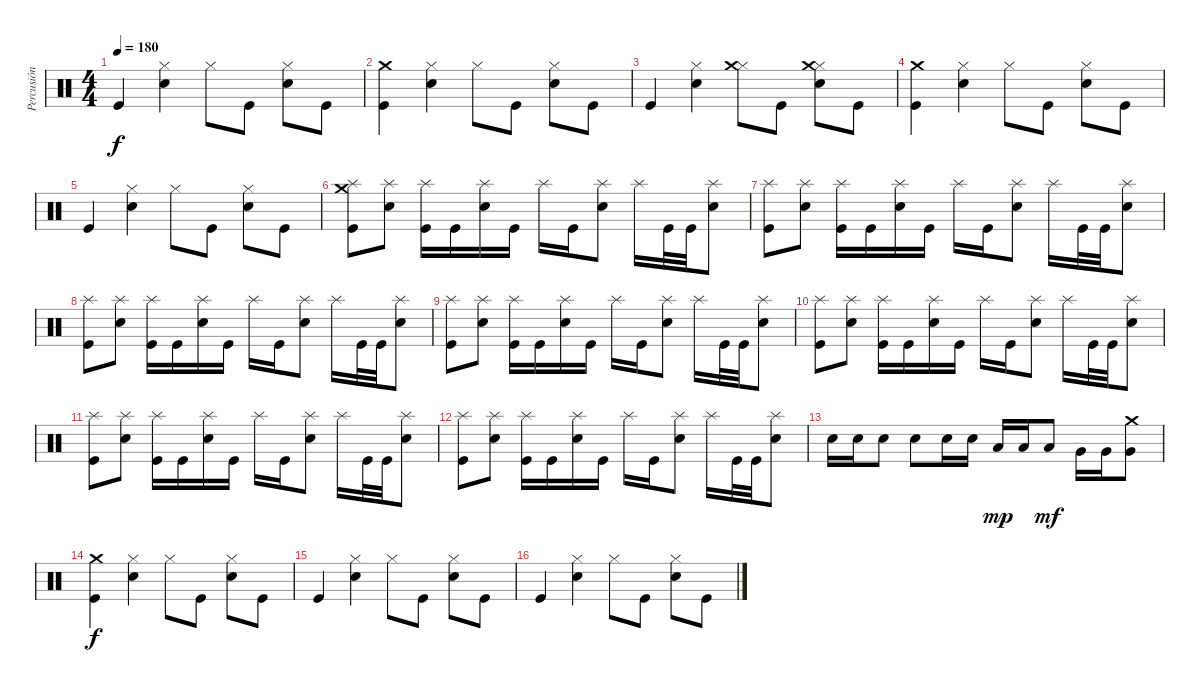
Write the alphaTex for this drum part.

\track ("Percusión" "Percusión") {instrument percussion}
\staff {score}
\articulation defaults
\ts (4 4)
\tempo 180
\clef neutral
\ks c "Kick (hit)".4{dy f}
("Snare (hit) 2" "Hi-Hat (closed)").4 "Hi-Hat (closed)".8 "Kick (hit)".8 ("Snare (hit) 2" "Hi-Hat (closed)").8 "Kick (hit)".8 |
("Kick (hit)" "Crash medium (hit)").4 ("Snare (hit) 2" "Hi-Hat (closed)").4 "Hi-Hat (closed)".8 "Kick (hit)".8 ("Snare (hit) 2" "Hi-Hat (closed)").8 "Kick (hit)".8 |
"Kick (hit)".4 ("Snare (hit) 2" "Hi-Hat (closed)").4 ("Hi-Hat (closed)" "Crash medium (hit)").8 "Kick (hit)".8 ("Snare (hit) 2" "Hi-Hat (closed)" "Crash medium (hit)").8 "Kick (hit)".8 |
("Kick (hit)" "Crash medium (hit)").4 ("Snare (hit) 2" "Hi-Hat (closed)").4 "Hi-Hat (closed)".8 "Kick (hit)".8 ("Snare (hit) 2" "Hi-Hat (closed)").8 "Kick (hit)".8 |
"Kick (hit)".4 ("Snare (hit) 2" "Hi-Hat (closed)").4 "Hi-Hat (closed)".8 "Kick (hit)".8 ("Snare (hit) 2" "Hi-Hat (closed)").8 "Kick (hit)".8 |
("Splash (hit)" "Kick (hit)" "Crash medium (hit)").8 ("Splash (hit)" "Electric Snare (hit)").8 ("Splash (hit)" "Kick (hit)").16 "Kick (hit)".16 ("Splash (hit)" "Electric Snare (hit)").16 "Kick (hit)".16 "Splash (hit)".16 "Kick (hit)".16 ("Splash (hit)" "Electric Snare (hit)").8 "Splash (hit)".16 "Kick (hit)".32 "Kick (hit)".32 ("Splash (hit)" "Electric Snare (hit)").8 |
("Splash (hit)" "Kick (hit)").8 ("Splash (hit)" "Electric Snare (hit)").8 ("Splash (hit)" "Kick (hit)").16 "Kick (hit)".16 ("Splash (hit)" "Electric Snare (hit)").16 "Kick (hit)".16 "Splash (hit)".16 "Kick (hit)".16 ("Splash (hit)" "Electric Snare (hit)").8 "Splash (hit)".16 "Kick (hit)".32 "Kick (hit)".32 ("Splash (hit)" "Electric Snare (hit)").8 |
("Splash (hit)" "Kick (hit)").8 ("Splash (hit)" "Electric Snare (hit)").8 ("Splash (hit)" "Kick (hit)").16 "Kick (hit)".16 ("Splash (hit)" "Electric Snare (hit)").16 "Kick (hit)".16 "Splash (hit)".16 "Kick (hit)".16 ("Splash (hit)" "Electric Snare (hit)").8 "Splash (hit)".16 "Kick (hit)".32 "Kick (hit)".32 ("Splash (hit)" "Electric Snare (hit)").8 |
("Splash (hit)" "Kick (hit)").8 ("Splash (hit)" "Electric Snare (hit)").8 ("Splash (hit)" "Kick (hit)").16 "Kick (hit)".16 ("Splash (hit)" "Electric Snare (hit)").16 "Kick (hit)".16 "Splash (hit)".16 "Kick (hit)".16 ("Splash (hit)" "Electric Snare (hit)").8 "Splash (hit)".16 "Kick (hit)".32 "Kick (hit)".32 ("Splash (hit)" "Electric Snare (hit)").8 |
("Splash (hit)" "Kick (hit)").8 ("Splash (hit)" "Electric Snare (hit)").8 ("Splash (hit)" "Kick (hit)").16 "Kick (hit)".16 ("Splash (hit)" "Electric Snare (hit)").16 "Kick (hit)".16 "Splash (hit)".16 "Kick (hit)".16 ("Splash (hit)" "Electric Snare (hit)").8 "Splash (hit)".16 "Kick (hit)".32 "Kick (hit)".32 ("Splash (hit)" "Electric Snare (hit)").8 |
("Splash (hit)" "Kick (hit)").8 ("Splash (hit)" "Electric Snare (hit)").8 ("Splash (hit)" "Kick (hit)").16 "Kick (hit)".16 ("Splash (hit)" "Electric Snare (hit)").16 "Kick (hit)".16 "Splash (hit)".16 "Kick (hit)".16 ("Splash (hit)" "Electric Snare (hit)").8 "Splash (hit)".16 "Kick (hit)".32 "Kick (hit)".32 ("Splash (hit)" "Electric Snare (hit)").8 |
("Splash (hit)" "Kick (hit)").8 ("Splash (hit)" "Electric Snare (hit)").8 ("Splash (hit)" "Kick (hit)").16 "Kick (hit)".16 ("Splash (hit)" "Electric Snare (hit)").16 "Kick (hit)".16 "Splash (hit)".16 "Kick (hit)".16 ("Splash (hit)" "Electric Snare (hit)").8 "Splash (hit)".16 "Kick (hit)".32 "Kick (hit)".32 ("Splash (hit)" "Electric Snare (hit)").8 |
"Electric Snare (hit)".16 "Electric Snare (hit)".16 "Electric Snare (hit)".8 "Electric Snare (hit)".8 "Electric Snare (hit)".16 "Electric Snare (hit)".16 "Low Tom (hit)".16{dy mp} "Low Tom (hit)".16 "Low Tom (hit)".8{dy mf} "Very Low Tom (hit)".16 "Very Low Tom (hit)".16 ("Very Low Tom (hit)" "Crash medium (hit)").8 |
("Kick (hit)" "Crash medium (hit)").4{dy f} ("Snare (hit) 2" "Hi-Hat (closed)").4 "Hi-Hat (closed)".8 "Kick (hit)".8 ("Snare (hit) 2" "Hi-Hat (closed)").8 "Kick (hit)".8 |
"Kick (hit)".4 ("Snare (hit) 2" "Hi-Hat (closed)").4 "Hi-Hat (closed)".8 "Kick (hit)".8 ("Snare (hit) 2" "Hi-Hat (closed)").8 "Kick (hit)".8 |
"Kick (hit)".4 ("Snare (hit) 2" "Hi-Hat (closed)").4 "Hi-Hat (closed)".8 "Kick (hit)".8 ("Snare (hit) 2" "Hi-Hat (closed)").8 "Kick (hit)".8
